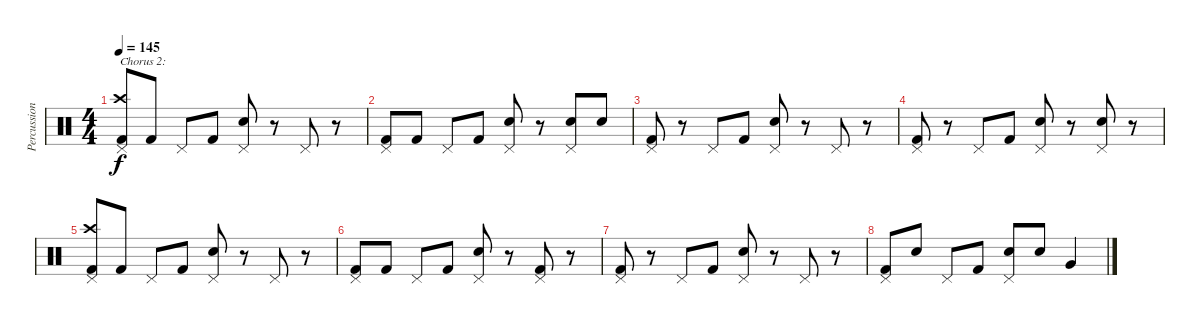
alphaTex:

\track ("Percussion" "Percussion") {instrument percussion}
\staff {score}
\articulation defaults
\ts (4 4)
\tempo 145
\clef neutral
\ks c
("Pedal Hi-Hat (hit)" "Crash high (hit)" "Kick (hit) 2").8{txt "Chorus 2:" dy f} "Kick (hit) 2".8 "Pedal Hi-Hat (hit)".8 "Kick (hit) 2".8 ("Pedal Hi-Hat (hit)" "Electric Snare (hit)").8 r.8 "Pedal Hi-Hat (hit)".8 r.8 |
("Pedal Hi-Hat (hit)" "Kick (hit) 2").8 "Kick (hit) 2".8 "Pedal Hi-Hat (hit)".8 "Kick (hit) 2".8 ("Pedal Hi-Hat (hit)" "Electric Snare (hit)").8 r.8 ("Pedal Hi-Hat (hit)" "Electric Snare (hit)").8 "Electric Snare (hit)".8 |
("Pedal Hi-Hat (hit)" "Kick (hit) 2").8 r.8 "Pedal Hi-Hat (hit)".8 "Kick (hit) 2".8 ("Pedal Hi-Hat (hit)" "Electric Snare (hit)").8 r.8 "Pedal Hi-Hat (hit)".8 r.8 |
("Pedal Hi-Hat (hit)" "Kick (hit) 2").8 r.8 "Pedal Hi-Hat (hit)".8 "Kick (hit) 2".8 ("Pedal Hi-Hat (hit)" "Electric Snare (hit)").8 r.8 ("Pedal Hi-Hat (hit)" "Electric Snare (hit)").8 r.8 |
("Pedal Hi-Hat (hit)" "Crash high (hit)" "Kick (hit) 2").8 "Kick (hit) 2".8 "Pedal Hi-Hat (hit)".8 "Kick (hit) 2".8 ("Pedal Hi-Hat (hit)" "Electric Snare (hit)").8 r.8 "Pedal Hi-Hat (hit)".8 r.8 |
("Pedal Hi-Hat (hit)" "Kick (hit) 2").8 "Kick (hit) 2".8 "Pedal Hi-Hat (hit)".8 "Kick (hit) 2".8 ("Pedal Hi-Hat (hit)" "Electric Snare (hit)").8 r.8 ("Pedal Hi-Hat (hit)" "Kick (hit) 2").8 r.8 |
("Pedal Hi-Hat (hit)" "Kick (hit) 2").8 r.8 "Pedal Hi-Hat (hit)".8 "Kick (hit) 2".8 ("Pedal Hi-Hat (hit)" "Electric Snare (hit)").8 r.8 "Pedal Hi-Hat (hit)".8 r.8 |
("Pedal Hi-Hat (hit)" "Kick (hit) 2").8 "Electric Snare (hit)".8 "Pedal Hi-Hat (hit)".8 "Kick (hit) 2".8 ("Pedal Hi-Hat (hit)" "Electric Snare (hit)").8 "Electric Snare (hit)".8 "Very Low Tom (hit)".4
